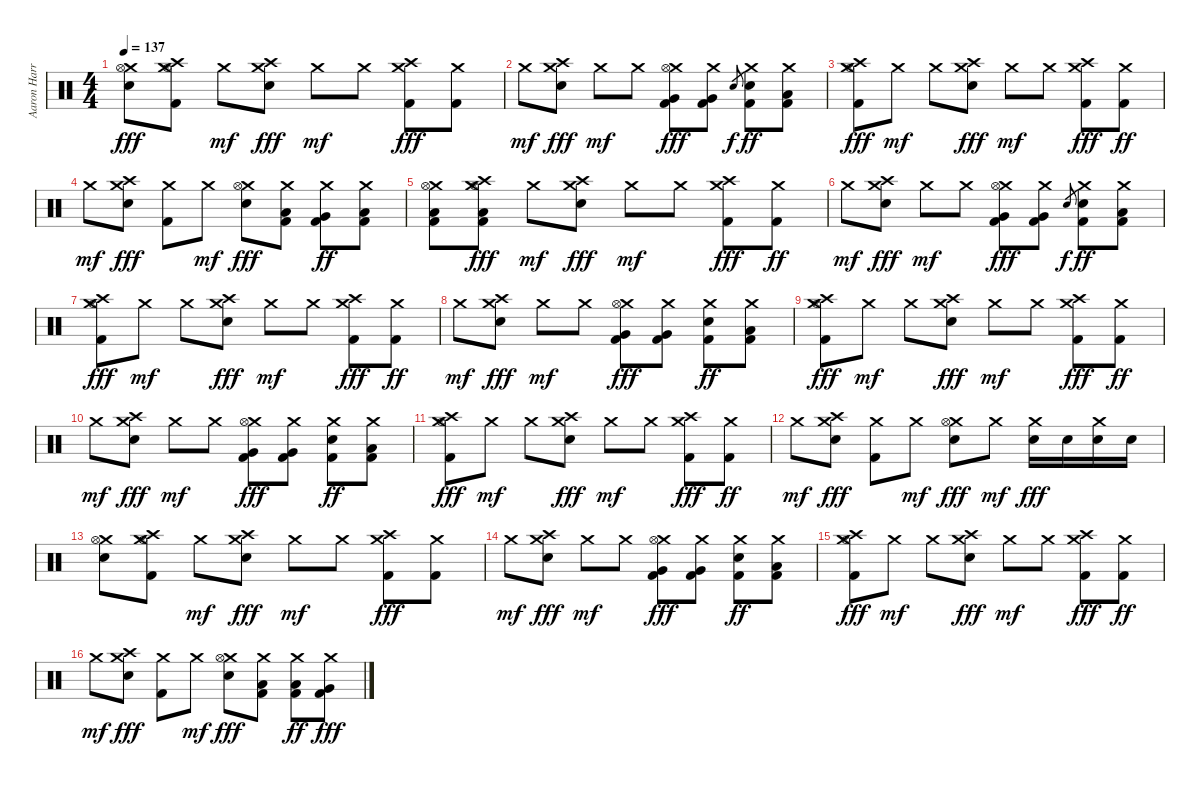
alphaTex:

\track ("Aaron Harris" "Aaron Harr") {instrument percussion}
\staff {score}
\articulation defaults
\ts (4 4)
\tempo 137
\clef neutral
\ks c
("Crash medium (hit)" "Hi-Hat (open)" "Electric Snare (hit)").8{dy fff} ("Crash medium (hit)" "Hi-Hat (open)" "Crash high (hit)" "Kick (hit) 2").8 "Crash medium (hit)".8{dy mf} ("Crash medium (hit)" "Crash high (hit)" "Electric Snare (hit)").8{dy fff} "Crash medium (hit)".8{dy mf} "Crash medium (hit)".8 ("Crash medium (hit)" "Crash high (hit)" "Kick (hit) 2").8{dy fff} ("Crash medium (hit)" "Kick (hit) 2").8 |
"Crash medium (hit)".8{dy mf} ("Crash medium (hit)" "Crash high (hit)" "Electric Snare (hit)").8{dy fff} "Crash medium (hit)".8{dy mf} "Crash medium (hit)".8 ("Crash medium (hit)" "Hi-Hat (open)" "Very Low Tom (hit)" "Kick (hit) 2").8{dy fff} ("Crash medium (hit)" "Very Low Tom (hit)" "Kick (hit) 2").8 "Electric Snare (hit)".8{gr dy f} ("Crash medium (hit)" "Electric Snare (hit)" "Kick (hit) 2").8{dy ff} ("Crash medium (hit)" "Low Floor Tom (hit)" "Kick (hit) 2").8 |
("Crash medium (hit)" "Crash high (hit)" "Hi-Hat (open)" "Kick (hit) 2").8{dy fff} "Crash medium (hit)".8{dy mf} "Crash medium (hit)".8 ("Crash medium (hit)" "Crash high (hit)" "Electric Snare (hit)").8{dy fff} "Crash medium (hit)".8{dy mf} "Crash medium (hit)".8 ("Crash medium (hit)" "Crash high (hit)" "Kick (hit) 2").8{dy fff} ("Crash medium (hit)" "Kick (hit) 2").8{dy ff} |
"Crash medium (hit)".8{dy mf} ("Crash medium (hit)" "Crash high (hit)" "Electric Snare (hit)").8{dy fff} ("Crash medium (hit)" "Kick (hit) 2").8 "Crash medium (hit)".8{dy mf} ("Crash medium (hit)" "Hi-Hat (open)" "Electric Snare (hit)").8{dy fff} ("Crash medium (hit)" "Low Tom (hit)" "Kick (hit) 2").8 ("Crash medium (hit)" "Very Low Tom (hit)" "Kick (hit) 2").8{dy ff} ("Crash medium (hit)" "Low Floor Tom (hit)" "Kick (hit) 2").8 |
("Crash medium (hit)" "Hi-Hat (open)" "Low Floor Tom (hit)" "Kick (hit) 2").8 ("Crash medium (hit)" "Hi-Hat (open)" "Crash high (hit)" "Low Floor Tom (hit)" "Kick (hit) 2").8{dy fff} "Crash medium (hit)".8{dy mf} ("Crash medium (hit)" "Crash high (hit)" "Electric Snare (hit)").8{dy fff} "Crash medium (hit)".8{dy mf} "Crash medium (hit)".8 ("Crash medium (hit)" "Crash high (hit)" "Kick (hit) 2").8{dy fff} ("Crash medium (hit)" "Kick (hit) 2").8{dy ff} |
"Crash medium (hit)".8{dy mf} ("Crash medium (hit)" "Crash high (hit)" "Electric Snare (hit)").8{dy fff} "Crash medium (hit)".8{dy mf} "Crash medium (hit)".8 ("Crash medium (hit)" "Hi-Hat (open)" "Very Low Tom (hit)" "Kick (hit) 2").8{dy fff} ("Crash medium (hit)" "Very Low Tom (hit)" "Kick (hit) 2").8 "Electric Snare (hit)".8{gr dy f} ("Crash medium (hit)" "Electric Snare (hit)" "Kick (hit) 2").8{dy ff} ("Crash medium (hit)" "Low Floor Tom (hit)" "Kick (hit) 2").8 |
("Crash medium (hit)" "Crash high (hit)" "Hi-Hat (open)" "Kick (hit) 2").8{dy fff} "Crash medium (hit)".8{dy mf} "Crash medium (hit)".8 ("Crash medium (hit)" "Crash high (hit)" "Electric Snare (hit)").8{dy fff} "Crash medium (hit)".8{dy mf} "Crash medium (hit)".8 ("Crash medium (hit)" "Crash high (hit)" "Kick (hit) 2").8{dy fff} ("Crash medium (hit)" "Kick (hit) 2").8{dy ff} |
"Crash medium (hit)".8{dy mf} ("Crash medium (hit)" "Crash high (hit)" "Electric Snare (hit)").8{dy fff} "Crash medium (hit)".8{dy mf} "Crash medium (hit)".8 ("Crash medium (hit)" "Hi-Hat (open)" "Very Low Tom (hit)" "Kick (hit) 2").8{dy fff} ("Crash medium (hit)" "Very Low Tom (hit)" "Kick (hit) 2").8 ("Crash medium (hit)" "Electric Snare (hit)" "Kick (hit) 2").8{dy ff} ("Crash medium (hit)" "Low Floor Tom (hit)" "Kick (hit) 2").8 |
("Crash medium (hit)" "Crash high (hit)" "Hi-Hat (open)" "Kick (hit) 2").8{dy fff} "Crash medium (hit)".8{dy mf} "Crash medium (hit)".8 ("Crash medium (hit)" "Crash high (hit)" "Electric Snare (hit)").8{dy fff} "Crash medium (hit)".8{dy mf} "Crash medium (hit)".8 ("Crash medium (hit)" "Crash high (hit)" "Kick (hit) 2").8{dy fff} ("Crash medium (hit)" "Kick (hit) 2").8{dy ff} |
"Crash medium (hit)".8{dy mf} ("Crash medium (hit)" "Crash high (hit)" "Electric Snare (hit)").8{dy fff} "Crash medium (hit)".8{dy mf} "Crash medium (hit)".8 ("Crash medium (hit)" "Hi-Hat (open)" "Very Low Tom (hit)" "Kick (hit) 2").8{dy fff} ("Crash medium (hit)" "Very Low Tom (hit)" "Kick (hit) 2").8 ("Crash medium (hit)" "Electric Snare (hit)" "Kick (hit) 2").8{dy ff} ("Crash medium (hit)" "Low Floor Tom (hit)" "Kick (hit) 2").8 |
("Crash medium (hit)" "Crash high (hit)" "Hi-Hat (open)" "Kick (hit) 2").8{dy fff} "Crash medium (hit)".8{dy mf} "Crash medium (hit)".8 ("Crash medium (hit)" "Crash high (hit)" "Electric Snare (hit)").8{dy fff} "Crash medium (hit)".8{dy mf} "Crash medium (hit)".8 ("Crash medium (hit)" "Crash high (hit)" "Kick (hit) 2").8{dy fff} ("Crash medium (hit)" "Kick (hit) 2").8{dy ff} |
"Crash medium (hit)".8{dy mf} ("Crash medium (hit)" "Crash high (hit)" "Electric Snare (hit)").8{dy fff} ("Crash medium (hit)" "Kick (hit) 2").8 "Crash medium (hit)".8{dy mf} ("Crash medium (hit)" "Hi-Hat (open)" "Electric Snare (hit)").8{dy fff} "Crash medium (hit)".8{dy mf} ("Crash medium (hit)" "Electric Snare (hit)").16{dy fff} "Electric Snare (hit)".16 ("Crash medium (hit)" "Electric Snare (hit)").16 "Electric Snare (hit)".16 |
("Crash medium (hit)" "Hi-Hat (open)" "Electric Snare (hit)").8 ("Crash medium (hit)" "Hi-Hat (open)" "Crash high (hit)" "Kick (hit) 2").8 "Crash medium (hit)".8{dy mf} ("Crash medium (hit)" "Crash high (hit)" "Electric Snare (hit)").8{dy fff} "Crash medium (hit)".8{dy mf} "Crash medium (hit)".8 ("Crash medium (hit)" "Crash high (hit)" "Kick (hit) 2").8{dy fff} ("Crash medium (hit)" "Kick (hit) 2").8 |
"Crash medium (hit)".8{dy mf} ("Crash medium (hit)" "Crash high (hit)" "Electric Snare (hit)").8{dy fff} "Crash medium (hit)".8{dy mf} "Crash medium (hit)".8 ("Crash medium (hit)" "Hi-Hat (open)" "Very Low Tom (hit)" "Kick (hit) 2").8{dy fff} ("Crash medium (hit)" "Very Low Tom (hit)" "Kick (hit) 2").8 ("Crash medium (hit)" "Electric Snare (hit)" "Kick (hit) 2").8{dy ff} ("Crash medium (hit)" "Low Floor Tom (hit)" "Kick (hit) 2").8 |
("Crash medium (hit)" "Crash high (hit)" "Hi-Hat (open)" "Kick (hit) 2").8{dy fff} "Crash medium (hit)".8{dy mf} "Crash medium (hit)".8 ("Crash medium (hit)" "Crash high (hit)" "Electric Snare (hit)").8{dy fff} "Crash medium (hit)".8{dy mf} "Crash medium (hit)".8 ("Crash medium (hit)" "Crash high (hit)" "Kick (hit) 2").8{dy fff} ("Crash medium (hit)" "Kick (hit) 2").8{dy ff} |
"Crash medium (hit)".8{dy mf} ("Crash medium (hit)" "Crash high (hit)" "Electric Snare (hit)").8{dy fff} ("Crash medium (hit)" "Kick (hit) 2").8 "Crash medium (hit)".8{dy mf} ("Crash medium (hit)" "Hi-Hat (open)" "Electric Snare (hit)").8{dy fff} ("Crash medium (hit)" "Low Tom (hit)" "Kick (hit) 2").8 ("Crash medium (hit)" "Low Tom (hit)" "Kick (hit) 2").8{dy ff} ("Crash medium (hit)" "Very Low Tom (hit)" "Kick (hit) 2").8{dy fff}
